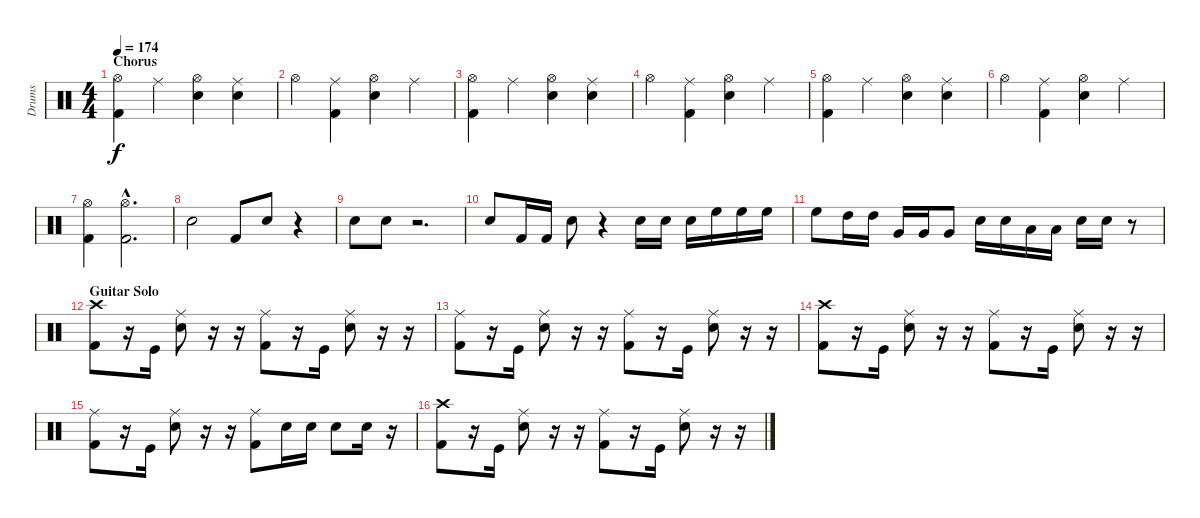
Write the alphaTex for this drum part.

\track ("Drums" "Drums") {instrument percussion}
\staff {score}
\articulation defaults
\ts (4 4)
\section ("" "Chorus")
\tempo 174
\clef neutral
\ks c
("Hi-Hat (open)" "Kick (hit) 2").4{dy f} "Ride (middle)".4 ("Hi-Hat (open)" "Snare (hit) 2").4 ("Ride (middle)" "Snare (hit) 2").4 |
"Hi-Hat (open)".4 ("Ride (middle)" "Kick (hit) 2").4 ("Hi-Hat (open)" "Snare (hit) 2").4 "Ride (middle)".4 |
("Hi-Hat (open)" "Kick (hit) 2").4 "Ride (middle)".4 ("Hi-Hat (open)" "Snare (hit) 2").4 ("Ride (middle)" "Snare (hit) 2").4 |
"Hi-Hat (open)".4 ("Ride (middle)" "Kick (hit) 2").4 ("Hi-Hat (open)" "Snare (hit) 2").4 "Ride (middle)".4 |
("Hi-Hat (open)" "Kick (hit) 2").4 "Ride (middle)".4 ("Hi-Hat (open)" "Snare (hit) 2").4 ("Ride (middle)" "Snare (hit) 2").4 |
"Hi-Hat (open)".4 ("Ride (middle)" "Kick (hit) 2").4 ("Hi-Hat (open)" "Snare (hit) 2").4 "Ride (middle)".4 |
("Hi-Hat (open)" "Kick (hit) 2").4 ("Hi-Hat (open)"{hac} "Kick (hit) 2"{hac}).2{d} |
"Snare (hit) 2".2 "Kick (hit) 2".8 "Snare (hit) 2".8 r.4 |
"Snare (hit) 2".8 "Snare (hit) 2".8 r.2{d} |
"Snare (hit) 2".8 "Kick (hit) 2".16 "Kick (hit) 2".16 "Snare (hit) 2".8 r.4 "Snare (hit) 2".16 "Snare (hit) 2".16 "Snare (hit) 2".16 "High Floor Tom (hit)".16 "High Floor Tom (hit)".16 "High Floor Tom (hit)".16 |
"High Floor Tom (hit)".8 "High Tom (hit)".16 "High Tom (hit)".16 "Very Low Tom (hit)".16 "Very Low Tom (hit)".16 "Very Low Tom (hit)".8 "Snare (hit) 2".16 "Snare (hit) 2".16 "Low Tom (hit)".16 "Low Tom (hit)".16 "Snare (hit) 2".16 "Snare (hit) 2".16 r.8 |
\section ("" "Guitar Solo")
("Crash high (hit)" "Kick (hit) 2").8 r.16 "Kick (hit)".16 ("Ride (middle)" "Snare (hit) 2").8 r.16 r.16 ("Ride (middle)" "Kick (hit) 2").8 r.16 "Kick (hit)".16 ("Ride (middle)" "Snare (hit) 2").8 r.16 r.16 |
("Ride (middle)" "Kick (hit) 2").8 r.16 "Kick (hit)".16 ("Ride (middle)" "Snare (hit) 2").8 r.16 r.16 ("Ride (middle)" "Kick (hit) 2").8 r.16 "Kick (hit)".16 ("Ride (middle)" "Snare (hit) 2").8 r.16 r.16 |
("Crash high (hit)" "Kick (hit) 2").8 r.16 "Kick (hit)".16 ("Ride (middle)" "Snare (hit) 2").8 r.16 r.16 ("Ride (middle)" "Kick (hit) 2").8 r.16 "Kick (hit)".16 ("Ride (middle)" "Snare (hit) 2").8 r.16 r.16 |
("Ride (middle)" "Kick (hit) 2").8 r.16 "Kick (hit)".16 ("Ride (middle)" "Snare (hit) 2").8 r.16 r.16 ("Ride (middle)" "Kick (hit) 2").8 "Snare (hit) 2".16 "Snare (hit) 2".16 "Snare (hit) 2".8 "Snare (hit) 2".16 r.16 |
("Crash high (hit)" "Kick (hit) 2").8 r.16 "Kick (hit)".16 ("Ride (middle)" "Snare (hit) 2").8 r.16 r.16 ("Ride (middle)" "Kick (hit) 2").8 r.16 "Kick (hit)".16 ("Ride (middle)" "Snare (hit) 2").8 r.16 r.16
